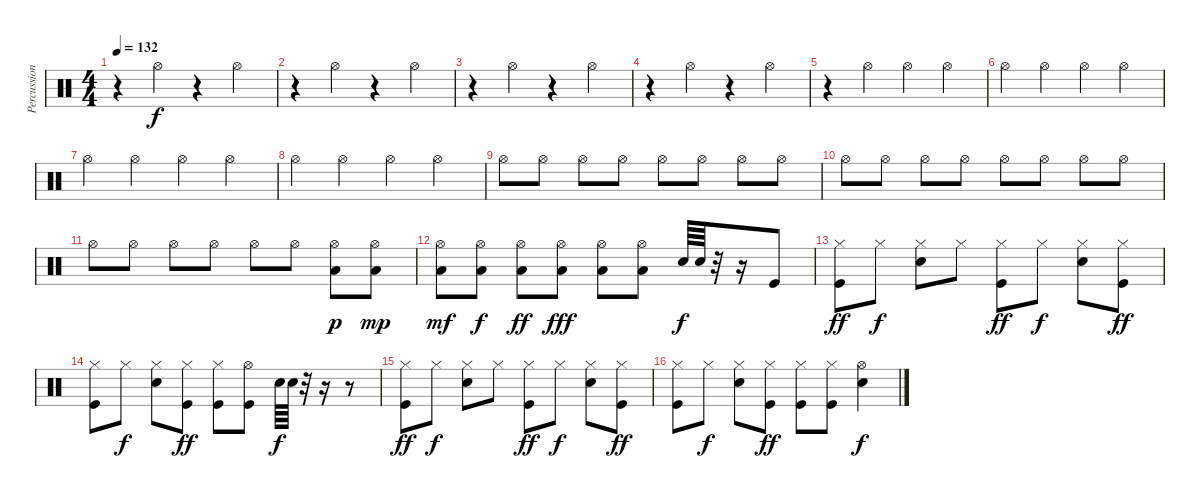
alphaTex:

\track ("Percussion" "Percussion") {instrument percussion}
\staff {score}
\articulation defaults
\ts (4 4)
\tempo 132
\clef neutral
\ks c
r.4{dy f} "Hi-Hat (open)".4 r.4 "Hi-Hat (open)".4 |
r.4 "Hi-Hat (open)".4 r.4 "Hi-Hat (open)".4 |
r.4 "Hi-Hat (open)".4 r.4 "Hi-Hat (open)".4 |
r.4 "Hi-Hat (open)".4 r.4 "Hi-Hat (open)".4 |
r.4 "Hi-Hat (open)".4 "Hi-Hat (open)".4 "Hi-Hat (open)".4 |
"Hi-Hat (open)".4 "Hi-Hat (open)".4 "Hi-Hat (open)".4 "Hi-Hat (open)".4 |
"Hi-Hat (open)".4 "Hi-Hat (open)".4 "Hi-Hat (open)".4 "Hi-Hat (open)".4 |
"Hi-Hat (open)".4 "Hi-Hat (open)".4 "Hi-Hat (open)".4 "Hi-Hat (open)".4 |
"Hi-Hat (open)".8 "Hi-Hat (open)".8 "Hi-Hat (open)".8 "Hi-Hat (open)".8 "Hi-Hat (open)".8 "Hi-Hat (open)".8 "Hi-Hat (open)".8 "Hi-Hat (open)".8 |
"Hi-Hat (open)".8 "Hi-Hat (open)".8 "Hi-Hat (open)".8 "Hi-Hat (open)".8 "Hi-Hat (open)".8 "Hi-Hat (open)".8 "Hi-Hat (open)".8 "Hi-Hat (open)".8 |
"Hi-Hat (open)".8 "Hi-Hat (open)".8 "Hi-Hat (open)".8 "Hi-Hat (open)".8 "Hi-Hat (open)".8 "Hi-Hat (open)".8 ("Hi-Hat (open)" "Low Tom (hit)").8{dy p} ("Hi-Hat (open)" "Low Tom (hit)").8{dy mp} |
("Hi-Hat (open)" "Low Tom (hit)").8{dy mf} ("Hi-Hat (open)" "Low Tom (hit)").8{dy f} ("Hi-Hat (open)" "Low Tom (hit)").8{dy ff} ("Hi-Hat (open)" "Low Tom (hit)").8{dy fff} ("Hi-Hat (open)" "Low Tom (hit)").8 ("Hi-Hat (open)" "Low Tom (hit)").8 "Snare (hit) 2".64{dy f} "Snare (hit) 2".64 r.32 r.16 "Kick (hit)".8 |
("Hi-Hat (closed)" "Kick (hit)").8{dy ff} "Hi-Hat (closed)".8{dy f} ("Hi-Hat (closed)" "Snare (hit) 2").8 "Hi-Hat (closed)".8 ("Hi-Hat (closed)" "Kick (hit)").8{dy ff} "Hi-Hat (closed)".8{dy f} ("Hi-Hat (closed)" "Snare (hit) 2").8 ("Hi-Hat (closed)" "Kick (hit)").8{dy ff} |
("Hi-Hat (closed)" "Kick (hit)").8 "Hi-Hat (closed)".8{dy f} ("Hi-Hat (closed)" "Snare (hit) 2").8 ("Hi-Hat (closed)" "Kick (hit)").8{dy ff} ("Hi-Hat (closed)" "Kick (hit)").8 ("Hi-Hat (open)" "Kick (hit)").8 "Snare (hit) 2".64{dy f} "Snare (hit) 2".64 r.32 r.16 r.8 |
("Hi-Hat (closed)" "Kick (hit)").8{dy ff} "Hi-Hat (closed)".8{dy f} ("Hi-Hat (closed)" "Snare (hit) 2").8 "Hi-Hat (closed)".8 ("Hi-Hat (closed)" "Kick (hit)").8{dy ff} "Hi-Hat (closed)".8{dy f} ("Hi-Hat (closed)" "Snare (hit) 2").8 ("Hi-Hat (closed)" "Kick (hit)").8{dy ff} |
("Hi-Hat (closed)" "Kick (hit)").8 "Hi-Hat (closed)".8{dy f} ("Hi-Hat (closed)" "Snare (hit) 2").8 ("Hi-Hat (closed)" "Kick (hit)").8{dy ff} ("Hi-Hat (closed)" "Kick (hit)").8 ("Hi-Hat (closed)" "Kick (hit)").8 ("Hi-Hat (open)" "Snare (hit) 2").4{dy f}
